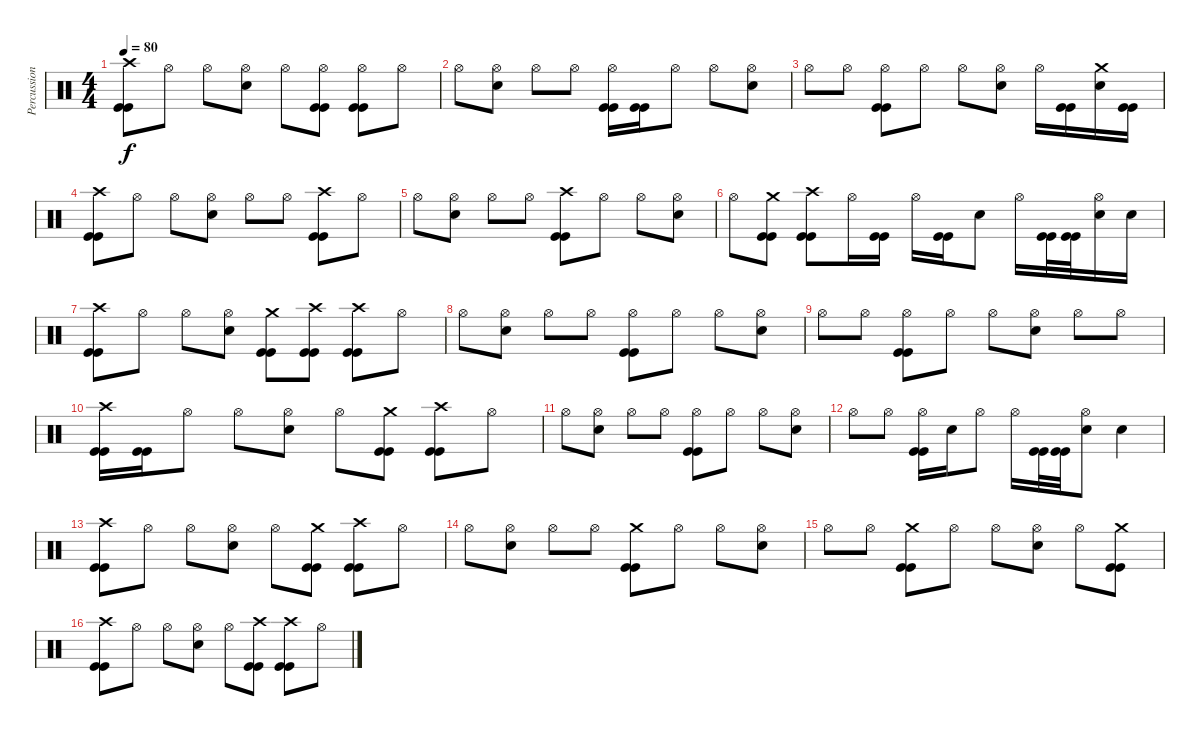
\track ("Percussions" "Percussion") {instrument percussion}
\staff {score}
\articulation defaults
\ts (4 4)
\tempo 80
\tempo 78
\tempo 80
\clef neutral
\ks c
("Kick (hit)" "Kick (hit)" "Crash high (hit)").8{dy f} "Hi-Hat (open)".8 "Hi-Hat (open)".8 ("Electric Snare (hit)" "Hi-Hat (open)").8 "Hi-Hat (open)".8 ("Kick (hit)" "Kick (hit)" "Hi-Hat (open)").8 ("Kick (hit)" "Kick (hit)" "Hi-Hat (open)").8 "Hi-Hat (open)".8 |
"Hi-Hat (open)".8 ("Electric Snare (hit)" "Hi-Hat (open)").8 "Hi-Hat (open)".8 "Hi-Hat (open)".8 ("Kick (hit)" "Kick (hit)" "Hi-Hat (open)").16 ("Kick (hit)" "Kick (hit)").16 "Hi-Hat (open)".8 "Hi-Hat (open)".8 ("Electric Snare (hit)" "Hi-Hat (open)").8 |
"Hi-Hat (open)".8 "Hi-Hat (open)".8 ("Kick (hit)" "Kick (hit)" "Hi-Hat (open)").8 "Hi-Hat (open)".8 "Hi-Hat (open)".8 ("Electric Snare (hit)" "Hi-Hat (open)").8 "Hi-Hat (open)".16 ("Kick (hit)" "Kick (hit)").16 ("Electric Snare (hit)" "Crash medium (hit)").16 ("Kick (hit)" "Kick (hit)").16 |
("Kick (hit)" "Kick (hit)" "Crash high (hit)").8 "Hi-Hat (open)".8 "Hi-Hat (open)".8 ("Electric Snare (hit)" "Hi-Hat (open)").8 "Hi-Hat (open)".8 "Hi-Hat (open)".8 ("Kick (hit)" "Kick (hit)" "Crash high (hit)").8 "Hi-Hat (open)".8 |
"Hi-Hat (open)".8 ("Electric Snare (hit)" "Hi-Hat (open)").8 "Hi-Hat (open)".8 "Hi-Hat (open)".8 ("Kick (hit)" "Kick (hit)" "Crash high (hit)").8 "Hi-Hat (open)".8 "Hi-Hat (open)".8 ("Electric Snare (hit)" "Hi-Hat (open)").8 |
"Hi-Hat (open)".8 ("Kick (hit)" "Kick (hit)" "Crash medium (hit)").8 ("Kick (hit)" "Kick (hit)" "Crash high (hit)").8 "Hi-Hat (open)".16 ("Kick (hit)" "Kick (hit)").16 "Hi-Hat (open)".16 ("Kick (hit)" "Kick (hit)").16 "Electric Snare (hit)".8 "Hi-Hat (open)".16 ("Kick (hit)" "Kick (hit)").32 ("Kick (hit)" "Kick (hit)").32 ("Electric Snare (hit)" "Hi-Hat (open)").16 "Electric Snare (hit)".16 |
("Kick (hit)" "Kick (hit)" "Crash high (hit)").8 "Hi-Hat (open)".8 "Hi-Hat (open)".8 ("Electric Snare (hit)" "Hi-Hat (open)").8 ("Kick (hit)" "Kick (hit)" "Crash medium (hit)").8 ("Kick (hit)" "Kick (hit)" "Crash high (hit)").8 ("Kick (hit)" "Kick (hit)" "Crash high (hit)").8 "Hi-Hat (open)".8 |
"Hi-Hat (open)".8 ("Electric Snare (hit)" "Hi-Hat (open)").8 "Hi-Hat (open)".8 "Hi-Hat (open)".8 ("Kick (hit)" "Kick (hit)" "Hi-Hat (open)").8 "Hi-Hat (open)".8 "Hi-Hat (open)".8 ("Electric Snare (hit)" "Hi-Hat (open)").8 |
"Hi-Hat (open)".8 "Hi-Hat (open)".8 ("Kick (hit)" "Kick (hit)" "Hi-Hat (open)").8 "Hi-Hat (open)".8 "Hi-Hat (open)".8 ("Electric Snare (hit)" "Hi-Hat (open)").8 "Hi-Hat (open)".8 "Hi-Hat (open)".8 |
("Kick (hit)" "Kick (hit)" "Crash high (hit)").16 ("Kick (hit)" "Kick (hit)").16 "Hi-Hat (open)".8 "Hi-Hat (open)".8 ("Electric Snare (hit)" "Hi-Hat (open)").8 "Hi-Hat (open)".8 ("Kick (hit)" "Kick (hit)" "Crash medium (hit)").8 ("Kick (hit)" "Kick (hit)" "Crash high (hit)").8 "Hi-Hat (open)".8 |
"Hi-Hat (open)".8 ("Electric Snare (hit)" "Hi-Hat (open)").8 "Hi-Hat (open)".8 "Hi-Hat (open)".8 ("Kick (hit)" "Kick (hit)" "Hi-Hat (open)").8 "Hi-Hat (open)".8 "Hi-Hat (open)".8 ("Electric Snare (hit)" "Hi-Hat (open)").8 |
"Hi-Hat (open)".8 "Hi-Hat (open)".8 ("Kick (hit)" "Kick (hit)" "Hi-Hat (open)").16 "Electric Snare (hit)".16 "Hi-Hat (open)".8 "Hi-Hat (open)".16 ("Kick (hit)" "Kick (hit)").32 ("Kick (hit)" "Kick (hit)").32 ("Electric Snare (hit)" "Hi-Hat (open)").8 "Electric Snare (hit)".4 |
("Kick (hit)" "Kick (hit)" "Crash high (hit)").8 "Hi-Hat (open)".8 "Hi-Hat (open)".8 ("Electric Snare (hit)" "Hi-Hat (open)").8 "Hi-Hat (open)".8 ("Kick (hit)" "Kick (hit)" "Crash medium (hit)").8 ("Kick (hit)" "Kick (hit)" "Crash high (hit)").8 "Hi-Hat (open)".8 |
"Hi-Hat (open)".8 ("Electric Snare (hit)" "Hi-Hat (open)").8 "Hi-Hat (open)".8 "Hi-Hat (open)".8 ("Kick (hit)" "Kick (hit)" "Crash medium (hit)").8 "Hi-Hat (open)".8 "Hi-Hat (open)".8 ("Electric Snare (hit)" "Hi-Hat (open)").8 |
"Hi-Hat (open)".8 "Hi-Hat (open)".8 ("Kick (hit)" "Kick (hit)" "Crash medium (hit)").8 "Hi-Hat (open)".8 "Hi-Hat (open)".8 ("Electric Snare (hit)" "Hi-Hat (open)").8 "Hi-Hat (open)".8 ("Kick (hit)" "Kick (hit)" "Crash medium (hit)").8 |
("Kick (hit)" "Kick (hit)" "Crash high (hit)").8 "Hi-Hat (open)".8 "Hi-Hat (open)".8 ("Electric Snare (hit)" "Hi-Hat (open)").8 "Hi-Hat (open)".8 ("Kick (hit)" "Kick (hit)" "Crash high (hit)").8 ("Kick (hit)" "Kick (hit)" "Crash high (hit)").8 "Hi-Hat (open)".8
